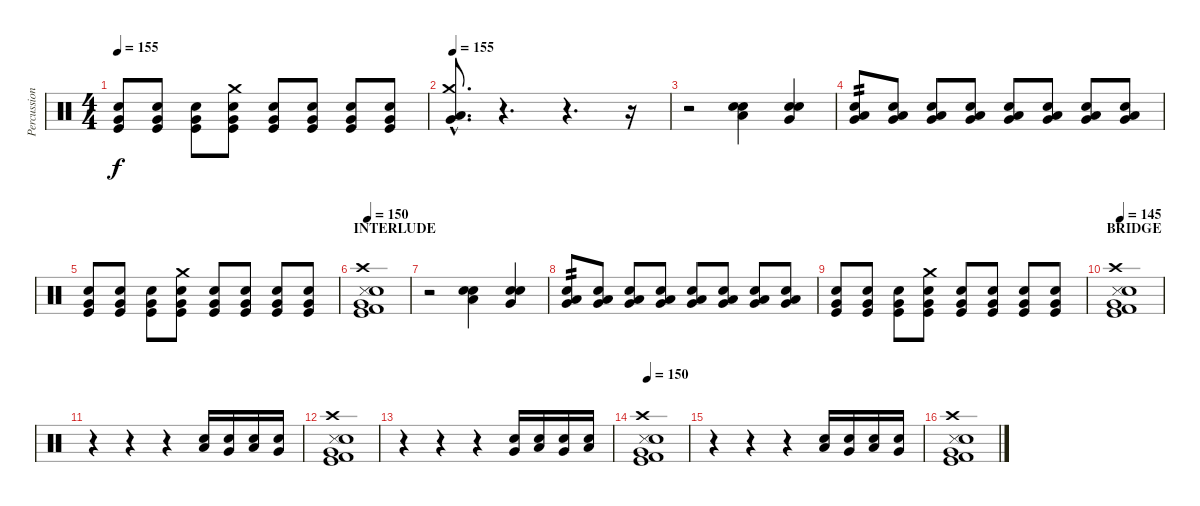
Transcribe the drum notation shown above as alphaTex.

\track ("Percussion-group" "Percussion") {instrument percussion}
\staff {score}
\articulation defaults
\ts (4 4)
\tempo 155
\clef neutral
\ks c
("Very Low Tom (hit)" "Kick (hit)" "Electric Snare (hit)").8{dy f} ("Very Low Tom (hit)" "Kick (hit)" "Electric Snare (hit)").8 ("Very Low Tom (hit)" "Kick (hit)" "Electric Snare (hit)").8 ("Very Low Tom (hit)" "Kick (hit)" "Electric Snare (hit)" "Crash medium (hit)").8 ("Very Low Tom (hit)" "Kick (hit)" "Electric Snare (hit)").8 ("Very Low Tom (hit)" "Kick (hit)" "Electric Snare (hit)").8 ("Very Low Tom (hit)" "Kick (hit)" "Electric Snare (hit)").8 ("Very Low Tom (hit)" "Kick (hit)" "Electric Snare (hit)").8 |
\tempo 155
("Very Low Tom (hit)"{hac} "Low Tom (hit)"{hac} "Crash medium (hit)"{hac}).8{d} r.4{d} r.4{d} r.16 |
r.2 ("Low Tom (hit)" "Electric Snare (hit)" "Snare (hit) 2").4 ("Very Low Tom (hit)" "Electric Snare (hit)" "Snare (hit) 2").4 |
("Low Tom (hit)" "Very Low Tom (hit)" "Electric Snare (hit)").8{tp 2} ("Low Tom (hit)" "Very Low Tom (hit)" "Electric Snare (hit)").8 ("Low Tom (hit)" "Very Low Tom (hit)" "Electric Snare (hit)").8 ("Low Tom (hit)" "Very Low Tom (hit)" "Electric Snare (hit)").8 ("Low Tom (hit)" "Very Low Tom (hit)" "Electric Snare (hit)").8 ("Low Tom (hit)" "Very Low Tom (hit)" "Electric Snare (hit)").8 ("Low Tom (hit)" "Very Low Tom (hit)" "Electric Snare (hit)").8 ("Low Tom (hit)" "Very Low Tom (hit)" "Electric Snare (hit)").8 |
("Very Low Tom (hit)" "Kick (hit)" "Electric Snare (hit)").8 ("Very Low Tom (hit)" "Kick (hit)" "Electric Snare (hit)").8 ("Very Low Tom (hit)" "Kick (hit)" "Electric Snare (hit)").8 ("Very Low Tom (hit)" "Kick (hit)" "Electric Snare (hit)" "Crash medium (hit)").8 ("Very Low Tom (hit)" "Kick (hit)" "Electric Snare (hit)").8 ("Very Low Tom (hit)" "Kick (hit)" "Electric Snare (hit)").8 ("Very Low Tom (hit)" "Kick (hit)" "Electric Snare (hit)").8 ("Very Low Tom (hit)" "Kick (hit)" "Electric Snare (hit)").8 |
\section ("" "INTERLUDE")
\tempo 150
("Very Low Tom (hit)" "Crash high (hit)" "Kick (hit)" "Metronome (hit)" "Kick (hit) 2" "Electric Snare (hit)").1 |
r.2 ("Low Tom (hit)" "Electric Snare (hit)" "Snare (hit) 2").4 ("Very Low Tom (hit)" "Electric Snare (hit)" "Snare (hit) 2").4 |
("Low Tom (hit)" "Very Low Tom (hit)" "Electric Snare (hit)").8{tp 2} ("Low Tom (hit)" "Very Low Tom (hit)" "Electric Snare (hit)").8 ("Low Tom (hit)" "Very Low Tom (hit)" "Electric Snare (hit)").8 ("Low Tom (hit)" "Very Low Tom (hit)" "Electric Snare (hit)").8 ("Low Tom (hit)" "Very Low Tom (hit)" "Electric Snare (hit)").8 ("Low Tom (hit)" "Very Low Tom (hit)" "Electric Snare (hit)").8 ("Low Tom (hit)" "Very Low Tom (hit)" "Electric Snare (hit)").8 ("Low Tom (hit)" "Very Low Tom (hit)" "Electric Snare (hit)").8 |
("Very Low Tom (hit)" "Kick (hit)" "Electric Snare (hit)").8 ("Very Low Tom (hit)" "Kick (hit)" "Electric Snare (hit)").8 ("Very Low Tom (hit)" "Kick (hit)" "Electric Snare (hit)").8 ("Very Low Tom (hit)" "Kick (hit)" "Electric Snare (hit)" "Crash medium (hit)").8 ("Very Low Tom (hit)" "Kick (hit)" "Electric Snare (hit)").8 ("Very Low Tom (hit)" "Kick (hit)" "Electric Snare (hit)").8 ("Very Low Tom (hit)" "Kick (hit)" "Electric Snare (hit)").8 ("Very Low Tom (hit)" "Kick (hit)" "Electric Snare (hit)").8 |
\section ("" "BRIDGE")
\tempo 150
\tempo 145
("Very Low Tom (hit)" "Crash high (hit)" "Kick (hit)" "Metronome (hit)" "Kick (hit) 2" "Electric Snare (hit)").1 |
r.4 r.4 r.4 ("Low Tom (hit)" "Snare (hit) 2").16 ("Very Low Tom (hit)" "Electric Snare (hit)").16 ("Low Tom (hit)" "Snare (hit) 2").16 ("Very Low Tom (hit)" "Electric Snare (hit)").16 |
("Very Low Tom (hit)" "Crash high (hit)" "Kick (hit)" "Metronome (hit)" "Kick (hit) 2" "Electric Snare (hit)").1 |
r.4 r.4 r.4 ("Very Low Tom (hit)" "Electric Snare (hit)").16 ("Low Tom (hit)" "Snare (hit) 2").16 ("Very Low Tom (hit)" "Electric Snare (hit)").16 ("Low Tom (hit)" "Snare (hit) 2").16 |
\tempo 150
("Very Low Tom (hit)" "Crash high (hit)" "Kick (hit)" "Metronome (hit)" "Kick (hit) 2" "Electric Snare (hit)").1 |
r.4 r.4 r.4 ("Low Tom (hit)" "Snare (hit) 2").16 ("Very Low Tom (hit)" "Electric Snare (hit)").16 ("Low Tom (hit)" "Snare (hit) 2").16 ("Very Low Tom (hit)" "Electric Snare (hit)").16 |
("Very Low Tom (hit)" "Crash high (hit)" "Kick (hit)" "Metronome (hit)" "Kick (hit) 2" "Electric Snare (hit)").1
